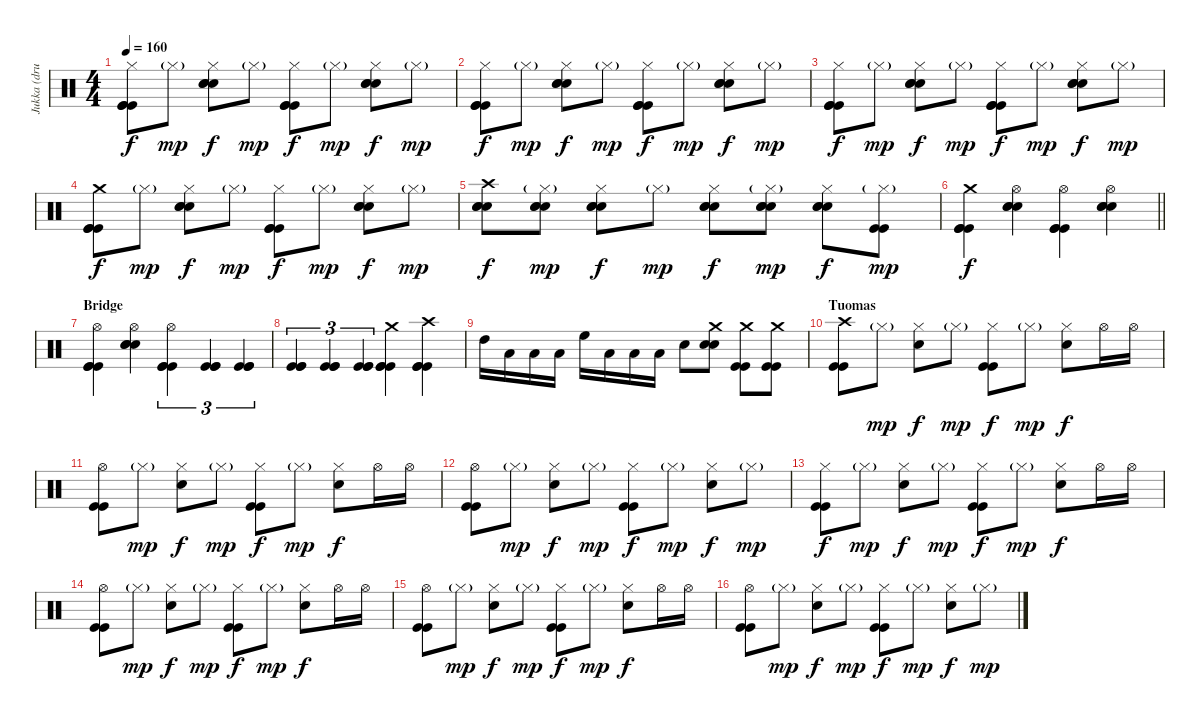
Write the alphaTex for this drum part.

\track ("Jukka (drums)" "Jukka (dru") {instrument percussion}
\staff {score}
\articulation defaults
\ts (4 4)
\tempo 160
\clef neutral
\ks c
("Hi-Hat (closed)" "Kick (hit)" "Kick (hit)" "Kick (hit)").8{dy f} "Hi-Hat (closed)"{g}.8{dy mp} ("Hi-Hat (closed)" "Electric Snare (hit)" "Electric Snare (hit)" "Electric Snare (hit)").8{dy f} "Hi-Hat (closed)"{g}.8{dy mp} ("Hi-Hat (closed)" "Kick (hit)" "Kick (hit)" "Kick (hit)").8{dy f} "Hi-Hat (closed)"{g}.8{dy mp} ("Hi-Hat (closed)" "Electric Snare (hit)" "Electric Snare (hit)" "Electric Snare (hit)").8{dy f} "Hi-Hat (closed)"{g}.8{dy mp} |
("Hi-Hat (closed)" "Kick (hit)" "Kick (hit)" "Kick (hit)").8{dy f} "Hi-Hat (closed)"{g}.8{dy mp} ("Hi-Hat (closed)" "Electric Snare (hit)" "Electric Snare (hit)" "Electric Snare (hit)").8{dy f} "Hi-Hat (closed)"{g}.8{dy mp} ("Hi-Hat (closed)" "Kick (hit)" "Kick (hit)" "Kick (hit)").8{dy f} "Hi-Hat (closed)"{g}.8{dy mp} ("Hi-Hat (closed)" "Electric Snare (hit)" "Electric Snare (hit)" "Electric Snare (hit)").8{dy f} "Hi-Hat (closed)"{g}.8{dy mp} |
("Hi-Hat (closed)" "Kick (hit)" "Kick (hit)" "Kick (hit)").8{dy f} "Hi-Hat (closed)"{g}.8{dy mp} ("Hi-Hat (closed)" "Electric Snare (hit)" "Electric Snare (hit)" "Electric Snare (hit)").8{dy f} "Hi-Hat (closed)"{g}.8{dy mp} ("Hi-Hat (closed)" "Kick (hit)" "Kick (hit)" "Kick (hit)").8{dy f} "Hi-Hat (closed)"{g}.8{dy mp} ("Hi-Hat (closed)" "Electric Snare (hit)" "Electric Snare (hit)" "Electric Snare (hit)").8{dy f} "Hi-Hat (closed)"{g}.8{dy mp} |
("Crash medium (hit)" "Kick (hit)" "Kick (hit)" "Kick (hit)").8{dy f} "Hi-Hat (closed)"{g}.8{dy mp} ("Hi-Hat (closed)" "Electric Snare (hit)" "Electric Snare (hit)" "Electric Snare (hit)").8{dy f} "Hi-Hat (closed)"{g}.8{dy mp} ("Hi-Hat (closed)" "Kick (hit)" "Kick (hit)" "Kick (hit)").8{dy f} "Hi-Hat (closed)"{g}.8{dy mp} ("Hi-Hat (closed)" "Electric Snare (hit)" "Electric Snare (hit)" "Electric Snare (hit)").8{dy f} "Hi-Hat (closed)"{g}.8{dy mp} |
("Crash high (hit)" "Electric Snare (hit)" "Electric Snare (hit)" "Electric Snare (hit)").8{dy f} ("Hi-Hat (closed)"{g} "Electric Snare (hit)" "Electric Snare (hit)" "Electric Snare (hit)").8{dy mp} ("Hi-Hat (closed)" "Electric Snare (hit)" "Electric Snare (hit)" "Electric Snare (hit)").8{dy f} "Hi-Hat (closed)"{g}.8{dy mp} ("Hi-Hat (closed)" "Electric Snare (hit)" "Electric Snare (hit)" "Electric Snare (hit)").8{dy f} ("Hi-Hat (closed)"{g} "Electric Snare (hit)" "Electric Snare (hit)" "Electric Snare (hit)").8{dy mp} ("Hi-Hat (closed)" "Electric Snare (hit)" "Electric Snare (hit)" "Electric Snare (hit)").8{dy f} ("Hi-Hat (closed)"{g} "Kick (hit)" "Kick (hit)").8{dy mp} |
\barLineRight lightlight
("Crash medium (hit)" "Kick (hit)" "Kick (hit)" "Kick (hit)").4{dy f} ("Hi-Hat (open)" "Electric Snare (hit)" "Electric Snare (hit)" "Electric Snare (hit)").4 ("Hi-Hat (open)" "Kick (hit)" "Kick (hit)" "Kick (hit)").4 ("Hi-Hat (open)" "Electric Snare (hit)" "Electric Snare (hit)" "Electric Snare (hit)").4 |
\section ("" "Bridge")
("Hi-Hat (open)" "Kick (hit)" "Kick (hit)" "Kick (hit)").4 ("Hi-Hat (open)" "Electric Snare (hit)" "Electric Snare (hit)" "Electric Snare (hit)").4 ("Hi-Hat (open)" "Kick (hit)" "Kick (hit)" "Kick (hit)").4{tu (3 2)} ("Kick (hit)" "Kick (hit)" "Kick (hit)").4{tu (3 2)} ("Kick (hit)" "Kick (hit)" "Kick (hit)").4{tu (3 2)} |
("Kick (hit)" "Kick (hit)" "Kick (hit)").4{tu (3 2)} ("Kick (hit)" "Kick (hit)" "Kick (hit)").4{tu (3 2)} ("Kick (hit)" "Kick (hit)" "Kick (hit)").4{tu (3 2)} ("Crash medium (hit)" "Kick (hit)" "Kick (hit)" "Kick (hit)").4 ("Crash high (hit)" "Kick (hit)" "Kick (hit)" "Kick (hit)").4 |
"High Tom (hit)".16 "Low Tom (hit)".16 "Low Tom (hit)".16 "Low Tom (hit)".16 "High Floor Tom (hit)".16 "Low Tom (hit)".16 "Low Tom (hit)".16 "Low Floor Tom (hit)".16 "Electric Snare (hit)".8 ("Crash medium (hit)" "Electric Snare (hit)" "Electric Snare (hit)").8 ("Crash medium (hit)" "Kick (hit)" "Kick (hit)").8 ("Crash medium (hit)" "Kick (hit)" "Kick (hit)").8 |
\section ("" "Tuomas")
("Crash high (hit)" "Kick (hit)" "Kick (hit)").8 "Hi-Hat (closed)"{g}.8{dy mp} ("Hi-Hat (closed)" "Electric Snare (hit)").8{dy f} "Hi-Hat (closed)"{g}.8{dy mp} ("Hi-Hat (closed)" "Kick (hit)" "Kick (hit)").8{dy f} "Hi-Hat (closed)"{g}.8{dy mp} ("Hi-Hat (closed)" "Electric Snare (hit)").8{dy f} "Hi-Hat (open)".16 "Hi-Hat (open)".16 |
("Hi-Hat (open)" "Kick (hit)" "Kick (hit)").8 "Hi-Hat (closed)"{g}.8{dy mp} ("Hi-Hat (closed)" "Electric Snare (hit)").8{dy f} "Hi-Hat (closed)"{g}.8{dy mp} ("Hi-Hat (closed)" "Kick (hit)" "Kick (hit)").8{dy f} "Hi-Hat (closed)"{g}.8{dy mp} ("Hi-Hat (closed)" "Electric Snare (hit)").8{dy f} "Hi-Hat (open)".16 "Hi-Hat (open)".16 |
("Hi-Hat (open)" "Kick (hit)" "Kick (hit)").8 "Hi-Hat (closed)"{g}.8{dy mp} ("Hi-Hat (closed)" "Electric Snare (hit)").8{dy f} "Hi-Hat (closed)"{g}.8{dy mp} ("Hi-Hat (closed)" "Kick (hit)" "Kick (hit)").8{dy f} "Hi-Hat (closed)"{g}.8{dy mp} ("Hi-Hat (closed)" "Electric Snare (hit)").8{dy f} "Hi-Hat (closed)"{g}.8{dy mp} |
("Hi-Hat (closed)" "Kick (hit)" "Kick (hit)").8{dy f} "Hi-Hat (closed)"{g}.8{dy mp} ("Hi-Hat (closed)" "Electric Snare (hit)").8{dy f} "Hi-Hat (closed)"{g}.8{dy mp} ("Hi-Hat (closed)" "Kick (hit)" "Kick (hit)").8{dy f} "Hi-Hat (closed)"{g}.8{dy mp} ("Hi-Hat (closed)" "Electric Snare (hit)").8{dy f} "Hi-Hat (open)".16 "Hi-Hat (open)".16 |
("Hi-Hat (open)" "Kick (hit)" "Kick (hit)").8 "Hi-Hat (closed)"{g}.8{dy mp} ("Hi-Hat (closed)" "Electric Snare (hit)").8{dy f} "Hi-Hat (closed)"{g}.8{dy mp} ("Hi-Hat (closed)" "Kick (hit)" "Kick (hit)").8{dy f} "Hi-Hat (closed)"{g}.8{dy mp} ("Hi-Hat (closed)" "Electric Snare (hit)").8{dy f} "Hi-Hat (open)".16 "Hi-Hat (open)".16 |
("Hi-Hat (open)" "Kick (hit)" "Kick (hit)").8 "Hi-Hat (closed)"{g}.8{dy mp} ("Hi-Hat (closed)" "Electric Snare (hit)").8{dy f} "Hi-Hat (closed)"{g}.8{dy mp} ("Hi-Hat (closed)" "Kick (hit)" "Kick (hit)").8{dy f} "Hi-Hat (closed)"{g}.8{dy mp} ("Hi-Hat (closed)" "Electric Snare (hit)").8{dy f} "Hi-Hat (open)".16 "Hi-Hat (open)".16 |
("Hi-Hat (open)" "Kick (hit)" "Kick (hit)").8 "Hi-Hat (closed)"{g}.8{dy mp} ("Hi-Hat (closed)" "Electric Snare (hit)").8{dy f} "Hi-Hat (closed)"{g}.8{dy mp} ("Hi-Hat (closed)" "Kick (hit)" "Kick (hit)").8{dy f} "Hi-Hat (closed)"{g}.8{dy mp} ("Hi-Hat (closed)" "Electric Snare (hit)").8{dy f} "Hi-Hat (closed)"{g}.8{dy mp}
